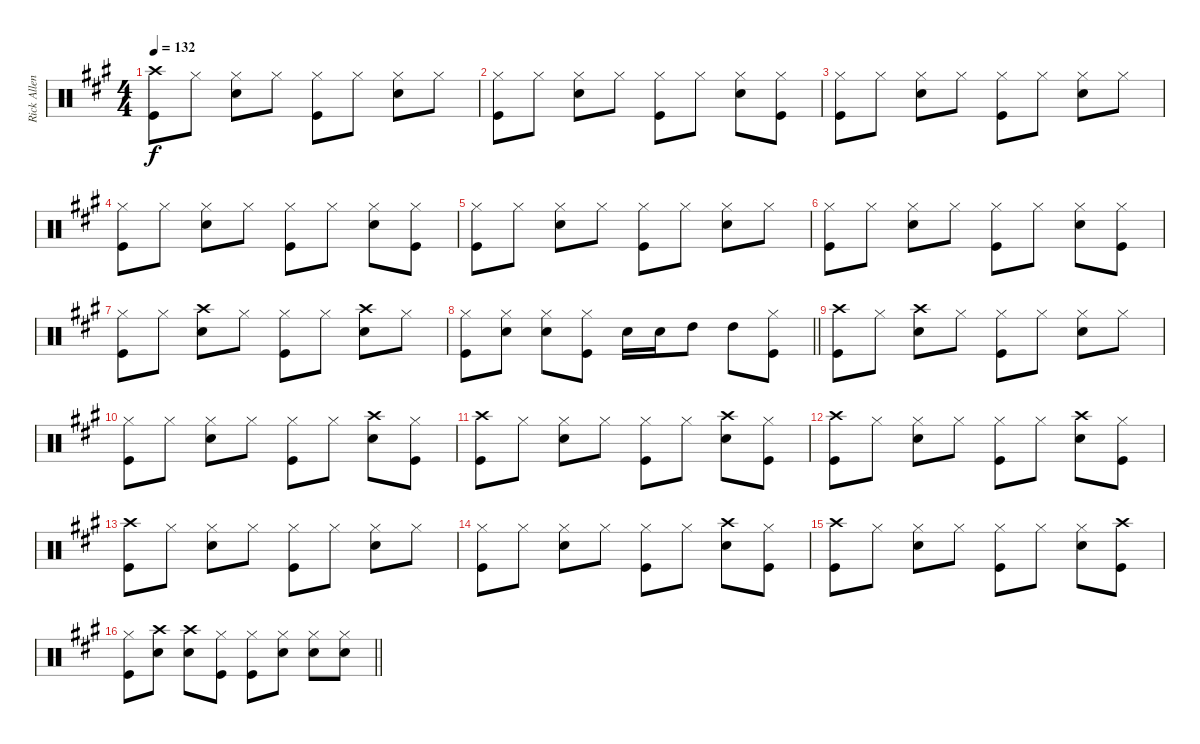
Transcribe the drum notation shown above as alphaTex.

\track ("Rick Allen" "Rick Allen") {instrument percussion}
\staff {score}
\articulation defaults
\ts (4 4)
\tempo 132
\clef neutral
\ks a
("Crash high (hit)" "Kick (hit)").8{dy f} "Hi-Hat (closed)".8 ("Hi-Hat (closed)" "Snare (hit) 2").8 "Hi-Hat (closed)".8 ("Hi-Hat (closed)" "Kick (hit)").8 "Hi-Hat (closed)".8 ("Hi-Hat (closed)" "Snare (hit) 2").8 "Hi-Hat (closed)".8 |
("Hi-Hat (closed)" "Kick (hit)").8 "Hi-Hat (closed)".8 ("Hi-Hat (closed)" "Snare (hit) 2").8 "Hi-Hat (closed)".8 ("Hi-Hat (closed)" "Kick (hit)").8 "Hi-Hat (closed)".8 ("Hi-Hat (closed)" "Snare (hit) 2").8 ("Hi-Hat (closed)" "Kick (hit)").8 |
("Hi-Hat (closed)" "Kick (hit)").8 "Hi-Hat (closed)".8 ("Hi-Hat (closed)" "Snare (hit) 2").8 "Hi-Hat (closed)".8 ("Hi-Hat (closed)" "Kick (hit)").8 "Hi-Hat (closed)".8 ("Hi-Hat (closed)" "Snare (hit) 2").8 "Hi-Hat (closed)".8 |
("Hi-Hat (closed)" "Kick (hit)").8 "Hi-Hat (closed)".8 ("Hi-Hat (closed)" "Snare (hit) 2").8 "Hi-Hat (closed)".8 ("Hi-Hat (closed)" "Kick (hit)").8 "Hi-Hat (closed)".8 ("Hi-Hat (closed)" "Snare (hit) 2").8 ("Hi-Hat (closed)" "Kick (hit)").8 |
("Hi-Hat (closed)" "Kick (hit)").8 "Hi-Hat (closed)".8 ("Hi-Hat (closed)" "Snare (hit) 2").8 "Hi-Hat (closed)".8 ("Hi-Hat (closed)" "Kick (hit)").8 "Hi-Hat (closed)".8 ("Hi-Hat (closed)" "Snare (hit) 2").8 "Hi-Hat (closed)".8 |
("Hi-Hat (closed)" "Kick (hit)").8 "Hi-Hat (closed)".8 ("Hi-Hat (closed)" "Snare (hit) 2").8 "Hi-Hat (closed)".8 ("Hi-Hat (closed)" "Kick (hit)").8 "Hi-Hat (closed)".8 ("Hi-Hat (closed)" "Snare (hit) 2").8 ("Hi-Hat (closed)" "Kick (hit)").8 |
("Hi-Hat (closed)" "Kick (hit)").8 "Hi-Hat (closed)".8 ("Crash high (hit)" "Snare (hit) 2").8 "Hi-Hat (closed)".8 ("Hi-Hat (closed)" "Kick (hit)").8 "Hi-Hat (closed)".8 ("Crash high (hit)" "Snare (hit) 2").8 "Hi-Hat (closed)".8 |
\barLineRight lightlight
("Hi-Hat (closed)" "Kick (hit)").8 ("Hi-Hat (closed)" "Snare (hit) 2").8 ("Hi-Hat (closed)" "Snare (hit) 2").8 ("Hi-Hat (closed)" "Kick (hit)").8 "Snare (hit) 2".16 "Snare (hit) 2".16 "High Tom (hit)".8 "High Tom (hit)".8 ("Hi-Hat (closed)" "Kick (hit)").8 |
("Crash high (hit)" "Kick (hit)").8 "Hi-Hat (closed)".8 ("Crash high (hit)" "Snare (hit) 2").8 "Hi-Hat (closed)".8 ("Hi-Hat (closed)" "Kick (hit)").8 "Hi-Hat (closed)".8 ("Hi-Hat (closed)" "Snare (hit) 2").8 "Hi-Hat (closed)".8 |
("Hi-Hat (closed)" "Kick (hit)").8 "Hi-Hat (closed)".8 ("Hi-Hat (closed)" "Snare (hit) 2").8 "Hi-Hat (closed)".8 ("Hi-Hat (closed)" "Kick (hit)").8 "Hi-Hat (closed)".8 ("Crash high (hit)" "Snare (hit) 2").8 ("Hi-Hat (closed)" "Kick (hit)").8 |
("Crash high (hit)" "Kick (hit)").8 "Hi-Hat (closed)".8 ("Hi-Hat (closed)" "Snare (hit) 2").8 "Hi-Hat (closed)".8 ("Hi-Hat (closed)" "Kick (hit)").8 "Hi-Hat (closed)".8 ("Crash high (hit)" "Snare (hit) 2").8 ("Hi-Hat (closed)" "Kick (hit)").8 |
("Crash high (hit)" "Kick (hit)").8 "Hi-Hat (closed)".8 ("Hi-Hat (closed)" "Snare (hit) 2").8 "Hi-Hat (closed)".8 ("Hi-Hat (closed)" "Kick (hit)").8 "Hi-Hat (closed)".8 ("Crash high (hit)" "Snare (hit) 2").8 ("Hi-Hat (closed)" "Kick (hit)").8 |
("Crash high (hit)" "Kick (hit)").8 "Hi-Hat (closed)".8 ("Hi-Hat (closed)" "Snare (hit) 2").8 "Hi-Hat (closed)".8 ("Hi-Hat (closed)" "Kick (hit)").8 "Hi-Hat (closed)".8 ("Hi-Hat (closed)" "Snare (hit) 2").8 "Hi-Hat (closed)".8 |
("Hi-Hat (closed)" "Kick (hit)").8 "Hi-Hat (closed)".8 ("Hi-Hat (closed)" "Snare (hit) 2").8 "Hi-Hat (closed)".8 ("Hi-Hat (closed)" "Kick (hit)").8 "Hi-Hat (closed)".8 ("Crash high (hit)" "Snare (hit) 2").8 ("Hi-Hat (closed)" "Kick (hit)").8 |
("Crash high (hit)" "Kick (hit)").8 "Hi-Hat (closed)".8 ("Hi-Hat (closed)" "Snare (hit) 2").8 "Hi-Hat (closed)".8 ("Hi-Hat (closed)" "Kick (hit)").8 "Hi-Hat (closed)".8 ("Hi-Hat (closed)" "Snare (hit) 2").8 ("Crash high (hit)" "Kick (hit)").8 |
\barLineRight lightlight
("Hi-Hat (closed)" "Kick (hit)").8 ("Crash high (hit)" "Snare (hit) 2").8 ("Crash high (hit)" "Snare (hit) 2").8 ("Hi-Hat (closed)" "Kick (hit)").8 ("Hi-Hat (closed)" "Kick (hit)").8 ("Hi-Hat (closed)" "Snare (hit) 2").8 ("Hi-Hat (closed)" "Snare (hit) 2").8 ("Hi-Hat (closed)" "Snare (hit) 2").8
